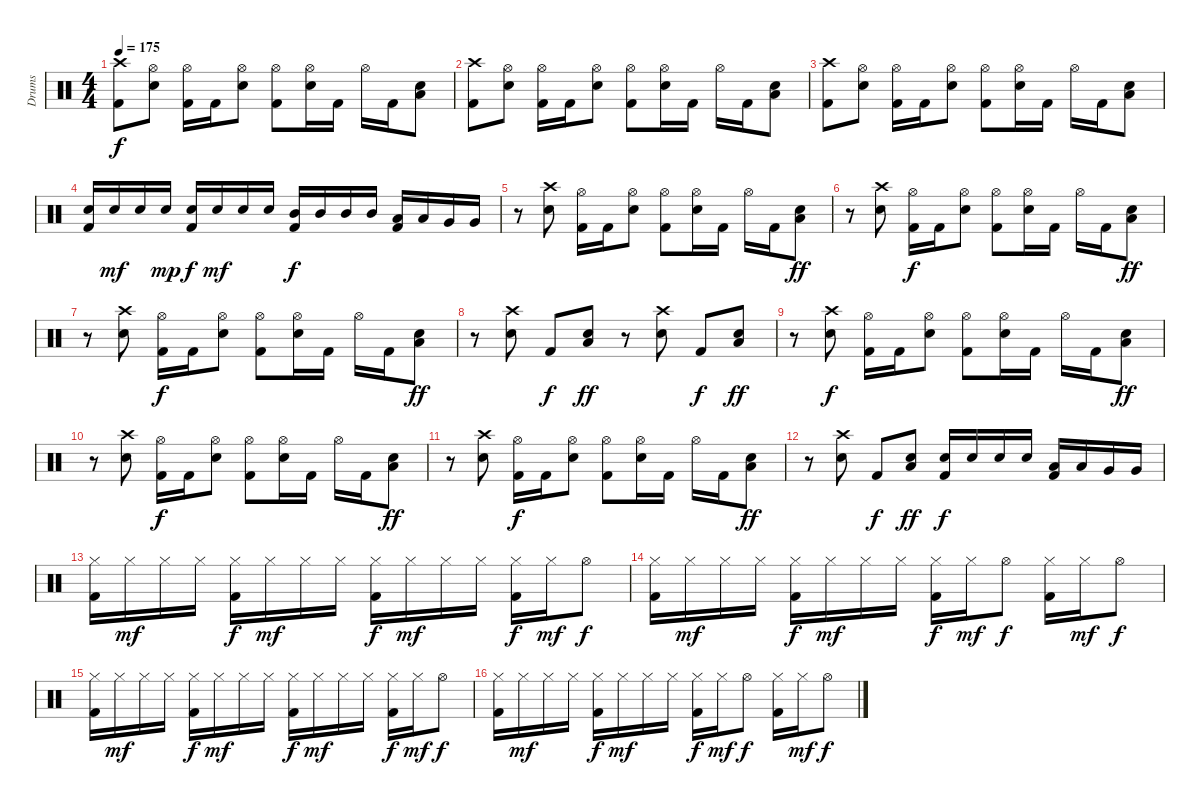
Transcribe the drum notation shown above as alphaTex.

\track ("Drums" "Drums") {instrument percussion}
\staff {score}
\articulation defaults
\ts (4 4)
\tempo 175
\clef neutral
\ks c
("Crash high (hit)" "Kick (hit) 2").8{dy f} ("Hi-Hat (open)" "Electric Snare (hit)").8 ("Hi-Hat (open)" "Kick (hit) 2").16 "Kick (hit) 2".16 ("Hi-Hat (open)" "Electric Snare (hit)").8 ("Hi-Hat (open)" "Kick (hit) 2").8 ("Hi-Hat (open)" "Electric Snare (hit)").16 "Kick (hit) 2".16 "Hi-Hat (open)".16 "Kick (hit) 2".16 ("Low Floor Tom (hit)" "Electric Snare (hit)").8 |
("Crash high (hit)" "Kick (hit) 2").8 ("Hi-Hat (open)" "Electric Snare (hit)").8 ("Hi-Hat (open)" "Kick (hit) 2").16 "Kick (hit) 2".16 ("Hi-Hat (open)" "Electric Snare (hit)").8 ("Hi-Hat (open)" "Kick (hit) 2").8 ("Hi-Hat (open)" "Electric Snare (hit)").16 "Kick (hit) 2".16 "Hi-Hat (open)".16 "Kick (hit) 2".16 ("Low Floor Tom (hit)" "Electric Snare (hit)").8 |
("Crash high (hit)" "Kick (hit) 2").8 ("Hi-Hat (open)" "Electric Snare (hit)").8 ("Hi-Hat (open)" "Kick (hit) 2").16 "Kick (hit) 2".16 ("Hi-Hat (open)" "Electric Snare (hit)").8 ("Hi-Hat (open)" "Kick (hit) 2").8 ("Hi-Hat (open)" "Electric Snare (hit)").16 "Kick (hit) 2".16 "Hi-Hat (open)".16 "Kick (hit) 2".16 ("Low Floor Tom (hit)" "Electric Snare (hit)").8 |
("Electric Snare (hit)" "Kick (hit) 2").16 "Electric Snare (hit)".16{dy mf} "Electric Snare (hit)".16 "Electric Snare (hit)".16{dy mp} ("Electric Snare (hit)" "Kick (hit) 2").16{dy f} "Electric Snare (hit)".16{dy mf} "Electric Snare (hit)".16 "Electric Snare (hit)".16 ("Mid Tom (hit)" "Kick (hit) 2").16{dy f} "Mid Tom (hit)".16 "Mid Tom (hit)".16 "Mid Tom (hit)".16 ("Low Tom (hit)" "Kick (hit) 2").16 "Low Tom (hit)".16 "Very Low Tom (hit)".16 "Very Low Tom (hit)".16 |
r.8 ("Crash high (hit)" "Electric Snare (hit)").8 ("Hi-Hat (open)" "Kick (hit) 2").16 "Kick (hit) 2".16 ("Hi-Hat (open)" "Electric Snare (hit)").8 ("Hi-Hat (open)" "Kick (hit) 2").8 ("Hi-Hat (open)" "Electric Snare (hit)").16 "Kick (hit) 2".16 "Hi-Hat (open)".16 "Kick (hit) 2".16 ("Low Floor Tom (hit)" "Electric Snare (hit)").8{dy ff} |
r.8 ("Crash high (hit)" "Electric Snare (hit)").8 ("Hi-Hat (open)" "Kick (hit) 2").16{dy f} "Kick (hit) 2".16 ("Hi-Hat (open)" "Electric Snare (hit)").8 ("Hi-Hat (open)" "Kick (hit) 2").8 ("Hi-Hat (open)" "Electric Snare (hit)").16 "Kick (hit) 2".16 "Hi-Hat (open)".16 "Kick (hit) 2".16 ("Low Floor Tom (hit)" "Electric Snare (hit)").8{dy ff} |
r.8 ("Crash high (hit)" "Electric Snare (hit)").8 ("Hi-Hat (open)" "Kick (hit) 2").16{dy f} "Kick (hit) 2".16 ("Hi-Hat (open)" "Electric Snare (hit)").8 ("Hi-Hat (open)" "Kick (hit) 2").8 ("Hi-Hat (open)" "Electric Snare (hit)").16 "Kick (hit) 2".16 "Hi-Hat (open)".16 "Kick (hit) 2".16 ("Low Floor Tom (hit)" "Electric Snare (hit)").8{dy ff} |
r.8 ("Crash high (hit)" "Electric Snare (hit)").8 "Kick (hit) 2".8{dy f} ("Low Floor Tom (hit)" "Electric Snare (hit)").8{dy ff} r.8 ("Crash high (hit)" "Electric Snare (hit)").8 "Kick (hit) 2".8{dy f} ("Low Floor Tom (hit)" "Electric Snare (hit)").8{dy ff} |
r.8 ("Crash high (hit)" "Electric Snare (hit)").8{dy f} ("Hi-Hat (open)" "Kick (hit) 2").16 "Kick (hit) 2".16 ("Hi-Hat (open)" "Electric Snare (hit)").8 ("Hi-Hat (open)" "Kick (hit) 2").8 ("Hi-Hat (open)" "Electric Snare (hit)").16 "Kick (hit) 2".16 "Hi-Hat (open)".16 "Kick (hit) 2".16 ("Low Floor Tom (hit)" "Electric Snare (hit)").8{dy ff} |
r.8 ("Crash high (hit)" "Electric Snare (hit)").8 ("Hi-Hat (open)" "Kick (hit) 2").16{dy f} "Kick (hit) 2".16 ("Hi-Hat (open)" "Electric Snare (hit)").8 ("Hi-Hat (open)" "Kick (hit) 2").8 ("Hi-Hat (open)" "Electric Snare (hit)").16 "Kick (hit) 2".16 "Hi-Hat (open)".16 "Kick (hit) 2".16 ("Low Floor Tom (hit)" "Electric Snare (hit)").8{dy ff} |
r.8 ("Crash high (hit)" "Electric Snare (hit)").8 ("Hi-Hat (open)" "Kick (hit) 2").16{dy f} "Kick (hit) 2".16 ("Hi-Hat (open)" "Electric Snare (hit)").8 ("Hi-Hat (open)" "Kick (hit) 2").8 ("Hi-Hat (open)" "Electric Snare (hit)").16 "Kick (hit) 2".16 "Hi-Hat (open)".16 "Kick (hit) 2".16 ("Low Floor Tom (hit)" "Electric Snare (hit)").8{dy ff} |
r.8 ("Crash high (hit)" "Electric Snare (hit)").8 "Kick (hit) 2".8{dy f} ("Low Floor Tom (hit)" "Electric Snare (hit)").8{dy ff} ("Electric Snare (hit)" "Kick (hit) 2").16{dy f} "Electric Snare (hit)".16 "Electric Snare (hit)".16 "Electric Snare (hit)".16 ("Low Tom (hit)" "Kick (hit) 2").16 "Low Tom (hit)".16 "Very Low Tom (hit)".16 "Very Low Tom (hit)".16 |
("Hi-Hat (closed)" "Kick (hit) 2").16 "Hi-Hat (closed)".16{dy mf} "Hi-Hat (closed)".16 "Hi-Hat (closed)".16 ("Hi-Hat (closed)" "Kick (hit) 2").16{dy f} "Hi-Hat (closed)".16{dy mf} "Hi-Hat (closed)".16 "Hi-Hat (closed)".16 ("Hi-Hat (closed)" "Kick (hit) 2").16{dy f} "Hi-Hat (closed)".16{dy mf} "Hi-Hat (closed)".16 "Hi-Hat (closed)".16 ("Hi-Hat (closed)" "Kick (hit) 2").16{dy f} "Hi-Hat (closed)".16{dy mf} "Hi-Hat (open)".8{dy f} |
("Hi-Hat (closed)" "Kick (hit) 2").16 "Hi-Hat (closed)".16{dy mf} "Hi-Hat (closed)".16 "Hi-Hat (closed)".16 ("Hi-Hat (closed)" "Kick (hit) 2").16{dy f} "Hi-Hat (closed)".16{dy mf} "Hi-Hat (closed)".16 "Hi-Hat (closed)".16 ("Hi-Hat (closed)" "Kick (hit) 2").16{dy f} "Hi-Hat (closed)".16{dy mf} "Hi-Hat (open)".8{dy f} ("Hi-Hat (closed)" "Kick (hit) 2").16 "Hi-Hat (closed)".16{dy mf} "Hi-Hat (open)".8{dy f} |
("Hi-Hat (closed)" "Kick (hit) 2").16 "Hi-Hat (closed)".16{dy mf} "Hi-Hat (closed)".16 "Hi-Hat (closed)".16 ("Hi-Hat (closed)" "Kick (hit) 2").16{dy f} "Hi-Hat (closed)".16{dy mf} "Hi-Hat (closed)".16 "Hi-Hat (closed)".16 ("Hi-Hat (closed)" "Kick (hit) 2").16{dy f} "Hi-Hat (closed)".16{dy mf} "Hi-Hat (closed)".16 "Hi-Hat (closed)".16 ("Hi-Hat (closed)" "Kick (hit) 2").16{dy f} "Hi-Hat (closed)".16{dy mf} "Hi-Hat (open)".8{dy f} |
("Hi-Hat (closed)" "Kick (hit) 2").16 "Hi-Hat (closed)".16{dy mf} "Hi-Hat (closed)".16 "Hi-Hat (closed)".16 ("Hi-Hat (closed)" "Kick (hit) 2").16{dy f} "Hi-Hat (closed)".16{dy mf} "Hi-Hat (closed)".16 "Hi-Hat (closed)".16 ("Hi-Hat (closed)" "Kick (hit) 2").16{dy f} "Hi-Hat (closed)".16{dy mf} "Hi-Hat (open)".8{dy f} ("Hi-Hat (closed)" "Kick (hit) 2").16 "Hi-Hat (closed)".16{dy mf} "Hi-Hat (open)".8{dy f}
